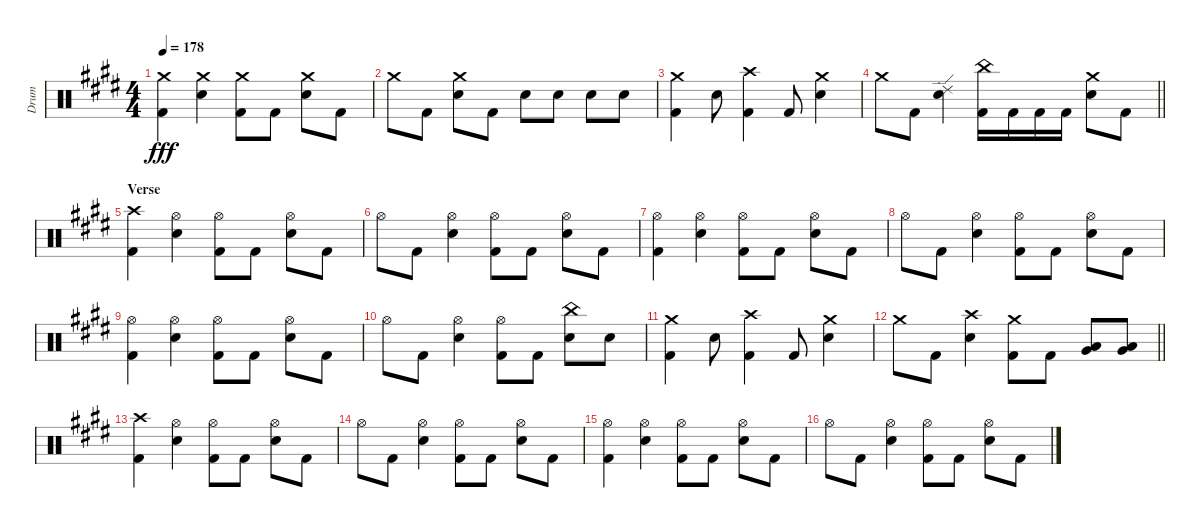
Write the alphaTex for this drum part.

\track ("Drum" "Drum") {instrument percussion}
\staff {score}
\articulation defaults
\ts (4 4)
\tempo 178
\clef neutral
\ks e
("Crash medium (hit)" "Kick (hit) 2").4{dy fff} ("Crash medium (hit)" "Electric Snare (hit)").4 ("Crash medium (hit)" "Kick (hit) 2").8 "Kick (hit) 2".8 ("Crash medium (hit)" "Electric Snare (hit)").8 "Kick (hit) 2".8 |
"Crash medium (hit)".8 "Kick (hit) 2".8 ("Crash medium (hit)" "Electric Snare (hit)").8 "Kick (hit) 2".8 "Electric Snare (hit)".8 "Electric Snare (hit)".8 "Electric Snare (hit)".8 "Electric Snare (hit)".8 |
("Crash medium (hit)" "Kick (hit) 2").4 "Electric Snare (hit)".8 ("Crash high (hit)" "Kick (hit) 2").4 "Kick (hit) 2".8 ("Crash medium (hit)" "Electric Snare (hit)").4 |
\barLineRight lightlight "Crash medium (hit)".8 "Kick (hit) 2".8
("Ride (edge) 2" "Electric Snare (hit)").4 ("China (hit)" "Kick (hit) 2").16 "Kick (hit) 2".16 "Kick (hit) 2".16 "Kick (hit) 2".16 ("Crash medium (hit)" "Electric Snare (hit)").8 "Kick (hit) 2".8 |
\section ("" "Verse")
("Crash high (hit)" "Kick (hit) 2").4 ("Hi-Hat (open)" "Electric Snare (hit)").4 ("Hi-Hat (open)" "Kick (hit) 2").8 "Kick (hit) 2".8 ("Hi-Hat (open)" "Electric Snare (hit)").8 "Kick (hit) 2".8 |
"Hi-Hat (open)".8 "Kick (hit) 2".8 ("Hi-Hat (open)" "Electric Snare (hit)").4 ("Hi-Hat (open)" "Kick (hit) 2").8 "Kick (hit) 2".8 ("Hi-Hat (open)" "Electric Snare (hit)").8 "Kick (hit) 2".8 |
("Hi-Hat (open)" "Kick (hit) 2").4 ("Hi-Hat (open)" "Electric Snare (hit)").4 ("Hi-Hat (open)" "Kick (hit) 2").8 "Kick (hit) 2".8 ("Hi-Hat (open)" "Electric Snare (hit)").8 "Kick (hit) 2".8 |
"Hi-Hat (open)".8 "Kick (hit) 2".8 ("Hi-Hat (open)" "Electric Snare (hit)").4 ("Hi-Hat (open)" "Kick (hit) 2").8 "Kick (hit) 2".8 ("Hi-Hat (open)" "Electric Snare (hit)").8 "Kick (hit) 2".8 |
("Hi-Hat (open)" "Kick (hit) 2").4 ("Hi-Hat (open)" "Electric Snare (hit)").4 ("Hi-Hat (open)" "Kick (hit) 2").8 "Kick (hit) 2".8 ("Hi-Hat (open)" "Electric Snare (hit)").8 "Kick (hit) 2".8 |
"Hi-Hat (open)".8 "Kick (hit) 2".8 ("Hi-Hat (open)" "Electric Snare (hit)").4 ("Hi-Hat (open)" "Kick (hit) 2").8 "Kick (hit) 2".8 ("China (hit)" "Electric Snare (hit)").8 "Electric Snare (hit)".8 |
("Crash medium (hit)" "Kick (hit) 2").4 "Electric Snare (hit)".8 ("Crash high (hit)" "Kick (hit) 2").4 "Kick (hit) 2".8 ("Crash medium (hit)" "Electric Snare (hit)").4 |
\barLineRight lightlight "Crash medium (hit)".8 "Kick (hit) 2".8
("Crash high (hit)" "Electric Snare (hit)").4 ("Crash medium (hit)" "Kick (hit) 2").8 "Kick (hit) 2".8 ("Low Tom (hit)" "Very Low Tom (hit)").8 ("Low Tom (hit)" "Very Low Tom (hit)").8 |
("Crash high (hit)" "Kick (hit) 2").4 ("Hi-Hat (open)" "Electric Snare (hit)").4 ("Hi-Hat (open)" "Kick (hit) 2").8 "Kick (hit) 2".8 ("Hi-Hat (open)" "Electric Snare (hit)").8 "Kick (hit) 2".8 |
"Hi-Hat (open)".8 "Kick (hit) 2".8 ("Hi-Hat (open)" "Electric Snare (hit)").4 ("Hi-Hat (open)" "Kick (hit) 2").8 "Kick (hit) 2".8 ("Hi-Hat (open)" "Electric Snare (hit)").8 "Kick (hit) 2".8 |
("Hi-Hat (open)" "Kick (hit) 2").4 ("Hi-Hat (open)" "Electric Snare (hit)").4 ("Hi-Hat (open)" "Kick (hit) 2").8 "Kick (hit) 2".8 ("Hi-Hat (open)" "Electric Snare (hit)").8 "Kick (hit) 2".8 |
"Hi-Hat (open)".8 "Kick (hit) 2".8 ("Hi-Hat (open)" "Electric Snare (hit)").4 ("Hi-Hat (open)" "Kick (hit) 2").8 "Kick (hit) 2".8 ("Hi-Hat (open)" "Electric Snare (hit)").8 "Kick (hit) 2".8
